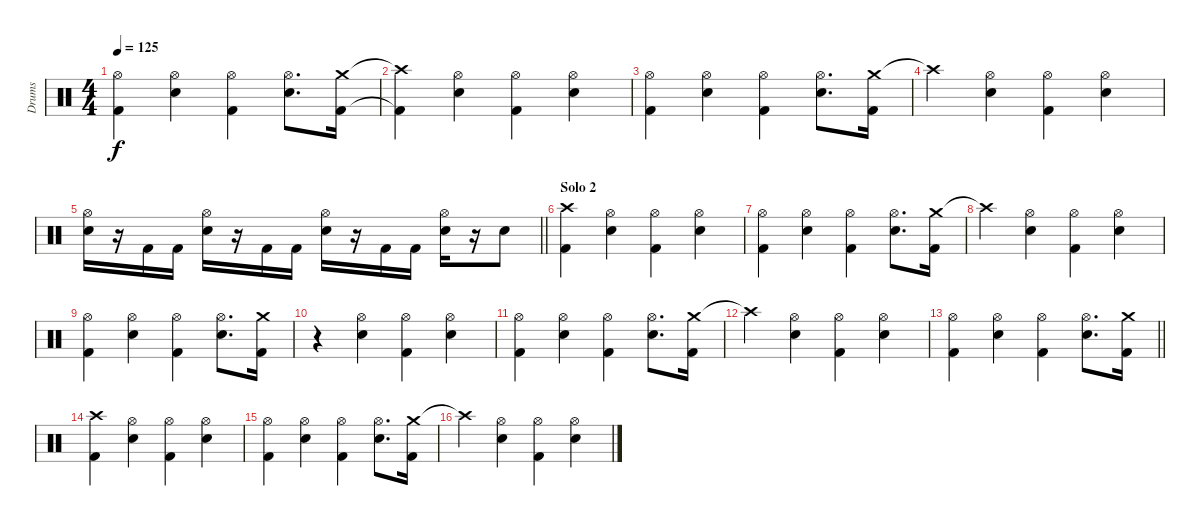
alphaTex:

\track ("Drums" "Drums") {instrument percussion}
\staff
\articulation defaults
\ts (4 4)
\tempo 125
\clef neutral
\ks c
("Hi-Hat (open)" "Kick (hit) 2").4{dy f} ("Hi-Hat (open)" "Electric Snare (hit)").4 ("Hi-Hat (open)" "Kick (hit) 2").4 ("Hi-Hat (open)" "Electric Snare (hit)").8{d} ("Crash medium (hit)" "Kick (hit) 2").16 |
("Crash high (hit)"{t} "Kick (hit) 2"{t}).4 ("Hi-Hat (open)" "Electric Snare (hit)").4 ("Hi-Hat (open)" "Kick (hit) 2").4 ("Hi-Hat (open)" "Electric Snare (hit)").4 |
("Hi-Hat (open)" "Kick (hit) 2").4 ("Hi-Hat (open)" "Electric Snare (hit)").4 ("Hi-Hat (open)" "Kick (hit) 2").4 ("Hi-Hat (open)" "Electric Snare (hit)").8{d} ("Crash medium (hit)" "Kick (hit) 2").16 |
"Crash high (hit)"{t}.4 ("Hi-Hat (open)" "Electric Snare (hit)").4 ("Hi-Hat (open)" "Kick (hit) 2").4 ("Hi-Hat (open)" "Electric Snare (hit)").4 |
\barLineRight lightlight
("Hi-Hat (open)" "Electric Snare (hit)").16 r.16 "Kick (hit) 2".16 "Kick (hit) 2".16 ("Hi-Hat (open)" "Electric Snare (hit)").16 r.16 "Kick (hit) 2".16 "Kick (hit) 2".16 ("Hi-Hat (open)" "Electric Snare (hit)").16 r.16 "Kick (hit) 2".16 "Kick (hit) 2".16 ("Hi-Hat (open)" "Electric Snare (hit)").16 r.16 "Electric Snare (hit)".8 |
\section ("" "Solo 2")
("Crash high (hit)" "Kick (hit) 2").4 ("Hi-Hat (open)" "Electric Snare (hit)").4 ("Hi-Hat (open)" "Kick (hit) 2").4 ("Hi-Hat (open)" "Electric Snare (hit)").4 |
("Hi-Hat (open)" "Kick (hit) 2").4 ("Hi-Hat (open)" "Electric Snare (hit)").4 ("Hi-Hat (open)" "Kick (hit) 2").4 ("Hi-Hat (open)" "Electric Snare (hit)").8{d} ("Crash medium (hit)" "Kick (hit) 2").16 |
"Crash high (hit)"{t}.4 ("Hi-Hat (open)" "Electric Snare (hit)").4 ("Hi-Hat (open)" "Kick (hit) 2").4 ("Hi-Hat (open)" "Electric Snare (hit)").4 |
("Hi-Hat (open)" "Kick (hit) 2").4 ("Hi-Hat (open)" "Electric Snare (hit)").4 ("Hi-Hat (open)" "Kick (hit) 2").4 ("Hi-Hat (open)" "Electric Snare (hit)").8{d} ("Crash medium (hit)" "Kick (hit) 2").16 |
r.4 ("Hi-Hat (open)" "Electric Snare (hit)").4 ("Hi-Hat (open)" "Kick (hit) 2").4 ("Hi-Hat (open)" "Electric Snare (hit)").4 |
("Hi-Hat (open)" "Kick (hit) 2").4 ("Hi-Hat (open)" "Electric Snare (hit)").4 ("Hi-Hat (open)" "Kick (hit) 2").4 ("Hi-Hat (open)" "Electric Snare (hit)").8{d} ("Crash medium (hit)" "Kick (hit) 2").16 |
"Crash high (hit)"{t}.4 ("Hi-Hat (open)" "Electric Snare (hit)").4 ("Hi-Hat (open)" "Kick (hit) 2").4 ("Hi-Hat (open)" "Electric Snare (hit)").4 |
\barLineRight lightlight
("Hi-Hat (open)" "Kick (hit) 2").4 ("Hi-Hat (open)" "Electric Snare (hit)").4 ("Hi-Hat (open)" "Kick (hit) 2").4 ("Hi-Hat (open)" "Electric Snare (hit)").8{d} ("Crash medium (hit)" "Kick (hit) 2").16 |
\section ("" "")
("Crash high (hit)" "Kick (hit) 2").4 ("Hi-Hat (open)" "Electric Snare (hit)").4 ("Hi-Hat (open)" "Kick (hit) 2").4 ("Hi-Hat (open)" "Electric Snare (hit)").4 |
("Hi-Hat (open)" "Kick (hit) 2").4 ("Hi-Hat (open)" "Electric Snare (hit)").4 ("Hi-Hat (open)" "Kick (hit) 2").4 ("Hi-Hat (open)" "Electric Snare (hit)").8{d} ("Crash medium (hit)" "Kick (hit) 2").16 |
"Crash high (hit)"{t}.4 ("Hi-Hat (open)" "Electric Snare (hit)").4 ("Hi-Hat (open)" "Kick (hit) 2").4 ("Hi-Hat (open)" "Electric Snare (hit)").4
